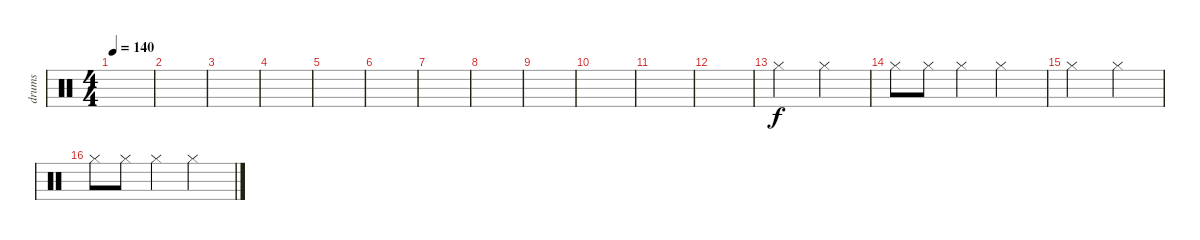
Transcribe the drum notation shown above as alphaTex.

\track ("drums" "drums") {instrument percussion}
\staff {score}
\articulation defaults
\ts (4 4)
\tempo 140
\clef neutral
\ks c
|
|
|
|
|
|
|
|
|
|
|
|
"Hi-Hat (closed)".2 "Hi-Hat (closed)".2 |
"Hi-Hat (closed)".8 "Hi-Hat (closed)".8 "Hi-Hat (closed)".4 "Hi-Hat (closed)".2 |
"Hi-Hat (closed)".2 "Hi-Hat (closed)".2 |
"Hi-Hat (closed)".8 "Hi-Hat (closed)".8 "Hi-Hat (closed)".4 "Hi-Hat (closed)".2
